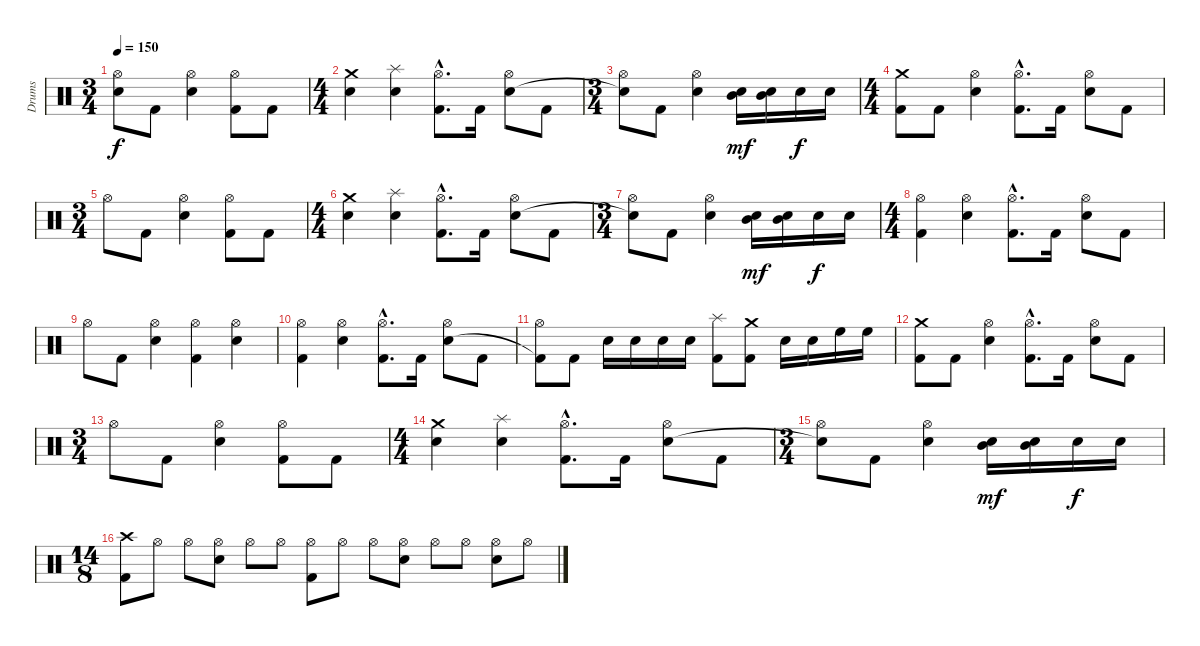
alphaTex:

\track ("Drums" "Drums") {instrument percussion}
\staff {score}
\articulation defaults
\ts (3 4)
\tempo 150
\clef neutral
\ks c
("Hi-Hat (open)" "Snare (hit)"{t}).8{dy f} "Kick (hit) 2".8 ("Hi-Hat (open)" "Electric Snare (hit)").4 ("Hi-Hat (open)" "Kick (hit) 2").8 "Kick (hit) 2".8 |
\ts (4 4)
("Crash medium (hit)" "Electric Snare (hit)").4 ("Splash (hit)" "Electric Snare (hit)").4 ("Hi-Hat (open)"{hac} "Kick (hit) 2"{hac}).8{d} "Kick (hit) 2".16 ("Hi-Hat (open)" "Electric Snare (hit)").8 "Kick (hit) 2".8 |
\ts (3 4)
("Hi-Hat (open)" "Snare (hit)"{t}).8 "Kick (hit) 2".8 ("Hi-Hat (open)" "Electric Snare (hit)").4 ("Mid Tom (hit)" "Electric Snare (hit)").16{dy mf} ("Mid Tom (hit)" "Electric Snare (hit)").16 "Electric Snare (hit)".16{dy f} "Electric Snare (hit)".16 |
\ts (4 4)
("Crash medium (hit)" "Kick (hit) 2").8 "Kick (hit) 2".8 ("Hi-Hat (open)" "Electric Snare (hit)").4 ("Hi-Hat (open)"{hac} "Kick (hit) 2"{hac}).8{d} "Kick (hit) 2".16 ("Hi-Hat (open)" "Electric Snare (hit)").8 "Kick (hit) 2".8 |
\ts (3 4)
"Hi-Hat (open)".8 "Kick (hit) 2".8 ("Hi-Hat (open)" "Electric Snare (hit)").4 ("Hi-Hat (open)" "Kick (hit) 2").8 "Kick (hit) 2".8 |
\ts (4 4)
("Crash medium (hit)" "Electric Snare (hit)").4 ("Splash (hit)" "Electric Snare (hit)").4 ("Hi-Hat (open)"{hac} "Kick (hit) 2"{hac}).8{d} "Kick (hit) 2".16 ("Hi-Hat (open)" "Electric Snare (hit)").8 "Kick (hit) 2".8 |
\ts (3 4)
("Hi-Hat (open)" "Snare (hit)"{t}).8 "Kick (hit) 2".8 ("Hi-Hat (open)" "Electric Snare (hit)").4 ("Mid Tom (hit)" "Electric Snare (hit)").16{dy mf} ("Mid Tom (hit)" "Electric Snare (hit)").16 "Electric Snare (hit)".16{dy f} "Electric Snare (hit)".16 |
\ts (4 4)
("Hi-Hat (open)" "Kick (hit) 2").4 ("Hi-Hat (open)" "Electric Snare (hit)").4 ("Hi-Hat (open)"{hac} "Kick (hit) 2"{hac}).8{d} "Kick (hit) 2".16 ("Hi-Hat (open)" "Electric Snare (hit)").8 "Kick (hit) 2".8 |
"Hi-Hat (open)".8 "Kick (hit) 2".8 ("Hi-Hat (open)" "Electric Snare (hit)").4 ("Hi-Hat (open)" "Kick (hit) 2").4 ("Hi-Hat (open)" "Electric Snare (hit)").4 |
("Hi-Hat (open)" "Kick (hit) 2").4 ("Hi-Hat (open)" "Electric Snare (hit)").4 ("Hi-Hat (open)"{hac} "Kick (hit) 2"{hac}).8{d} "Kick (hit) 2".16 ("Hi-Hat (open)" "Electric Snare (hit)").8 "Kick (hit) 2".8 |
("Hi-Hat (open)" "Kick (hit) 2"{t}).8 "Kick (hit) 2".8 "Electric Snare (hit)".16 "Electric Snare (hit)".16 "Electric Snare (hit)".16 "Electric Snare (hit)".16 ("Splash (hit)" "Kick (hit) 2").8 ("Crash medium (hit)" "Kick (hit) 2").8 "Electric Snare (hit)".16 "Electric Snare (hit)".16 "High Floor Tom (hit)".16 "High Floor Tom (hit)".16 |
("Crash medium (hit)" "Kick (hit) 2").8 "Kick (hit) 2".8 ("Hi-Hat (open)" "Electric Snare (hit)").4 ("Hi-Hat (open)"{hac} "Kick (hit) 2"{hac}).8{d} "Kick (hit) 2".16 ("Hi-Hat (open)" "Electric Snare (hit)").8 "Kick (hit) 2".8 |
\ts (3 4)
"Hi-Hat (open)".8 "Kick (hit) 2".8 ("Hi-Hat (open)" "Electric Snare (hit)").4 ("Hi-Hat (open)" "Kick (hit) 2").8 "Kick (hit) 2".8 |
\ts (4 4)
("Crash medium (hit)" "Electric Snare (hit)").4 ("Splash (hit)" "Electric Snare (hit)").4 ("Hi-Hat (open)"{hac} "Kick (hit) 2"{hac}).8{d} "Kick (hit) 2".16 ("Hi-Hat (open)" "Electric Snare (hit)").8 "Kick (hit) 2".8 |
\ts (3 4)
("Hi-Hat (open)" "Snare (hit)"{t}).8 "Kick (hit) 2".8 ("Hi-Hat (open)" "Electric Snare (hit)").4 ("Mid Tom (hit)" "Electric Snare (hit)").16{dy mf} ("Mid Tom (hit)" "Electric Snare (hit)").16 "Electric Snare (hit)".16{dy f} "Electric Snare (hit)".16 |
\ts (14 8)
("Crash high (hit)" "Kick (hit) 2").8 "Hi-Hat (open)".8 "Hi-Hat (open)".8 ("Hi-Hat (open)" "Electric Snare (hit)").8 "Hi-Hat (open)".8 "Hi-Hat (open)".8 ("Hi-Hat (open)" "Kick (hit) 2").8 "Hi-Hat (open)".8 "Hi-Hat (open)".8 ("Hi-Hat (open)" "Electric Snare (hit)").8 "Hi-Hat (open)".8 "Hi-Hat (open)".8 ("Hi-Hat (open)" "Electric Snare (hit)").8 "Hi-Hat (open)".8
